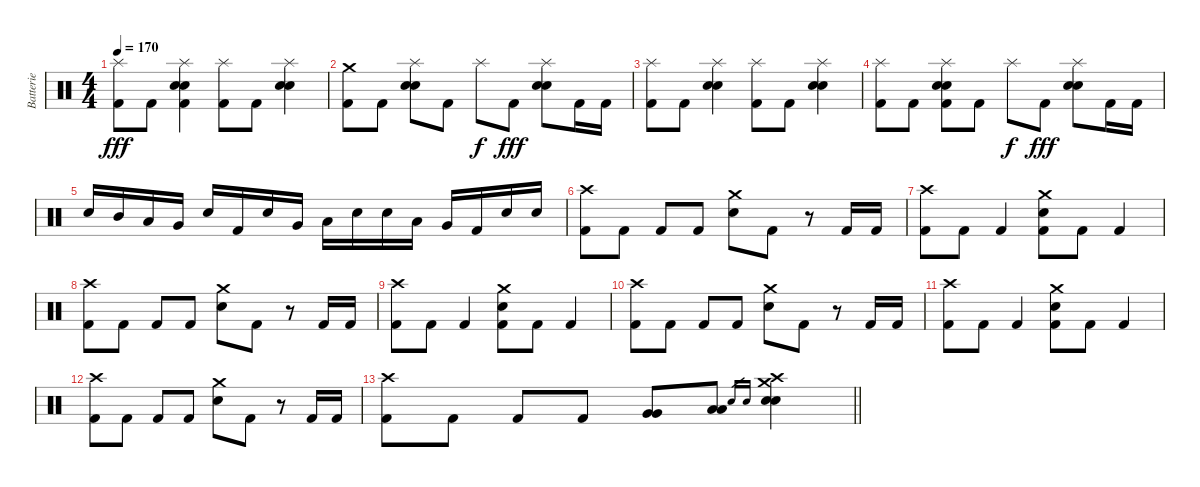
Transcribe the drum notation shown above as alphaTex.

\track ("Batterie" "Batterie") {instrument percussion}
\staff {score}
\articulation defaults
\ts (4 4)
\tempo 170
\clef neutral
\ks c
("Splash (hit)" "Kick (hit) 2").8{dy fff} "Kick (hit) 2".8 ("Splash (hit)" "Electric Snare (hit)" "Electric Snare (hit)" "Kick (hit) 2").4 ("Splash (hit)" "Kick (hit) 2").8 "Kick (hit) 2".8 ("Splash (hit)" "Electric Snare (hit)" "Electric Snare (hit)").4 |
("Crash medium (hit)" "Kick (hit) 2").8 "Kick (hit) 2".8 ("Splash (hit)" "Electric Snare (hit)" "Electric Snare (hit)").8 "Kick (hit) 2".8 "Splash (hit)".8{dy f} "Kick (hit) 2".8{dy fff} ("Splash (hit)" "Electric Snare (hit)" "Electric Snare (hit)").8 "Kick (hit) 2".16 "Kick (hit) 2".16 |
("Splash (hit)" "Kick (hit) 2").8 "Kick (hit) 2".8 ("Splash (hit)" "Electric Snare (hit)" "Electric Snare (hit)").4 ("Splash (hit)" "Kick (hit) 2").8 "Kick (hit) 2".8 ("Splash (hit)" "Electric Snare (hit)" "Electric Snare (hit)").4 |
("Splash (hit)" "Kick (hit) 2").8 "Kick (hit) 2".8 ("Splash (hit)" "Electric Snare (hit)" "Electric Snare (hit)" "Kick (hit) 2").8 "Kick (hit) 2".8 "Splash (hit)".8{dy f} "Kick (hit) 2".8{dy fff} ("Splash (hit)" "Electric Snare (hit)" "Electric Snare (hit)").8 "Kick (hit) 2".16 "Kick (hit) 2".16 |
"Electric Snare (hit)".16 "Mid Tom (hit)".16 "Low Tom (hit)".16 "Very Low Tom (hit)".16 "Electric Snare (hit)".16 "Kick (hit) 2".16 "Electric Snare (hit)".16 "Very Low Tom (hit)".16 "Low Floor Tom (hit)".16 "Electric Snare (hit)".16 "Electric Snare (hit)".16 "Low Tom (hit)".16 "Very Low Tom (hit)".16 "Kick (hit) 2".16 "Electric Snare (hit)".16 "Electric Snare (hit)".16 |
("Crash high (hit)" "Kick (hit) 2").8 "Kick (hit) 2".8 "Kick (hit) 2".8 "Kick (hit) 2".8 ("Crash medium (hit)" "Electric Snare (hit)").8 "Kick (hit) 2".8 r.8 "Kick (hit) 2".16 "Kick (hit) 2".16 |
("Crash high (hit)" "Kick (hit) 2").8 "Kick (hit) 2".8 "Kick (hit) 2".4 ("Crash medium (hit)" "Electric Snare (hit)" "Kick (hit) 2").8 "Kick (hit) 2".8 "Kick (hit) 2".4 |
("Crash high (hit)" "Kick (hit) 2").8 "Kick (hit) 2".8 "Kick (hit) 2".8 "Kick (hit) 2".8 ("Crash medium (hit)" "Electric Snare (hit)").8 "Kick (hit) 2".8 r.8 "Kick (hit) 2".16 "Kick (hit) 2".16 |
("Crash high (hit)" "Kick (hit) 2").8 "Kick (hit) 2".8 "Kick (hit) 2".4 ("Crash medium (hit)" "Electric Snare (hit)" "Kick (hit) 2").8 "Kick (hit) 2".8 "Kick (hit) 2".4 |
("Crash high (hit)" "Kick (hit) 2").8 "Kick (hit) 2".8 "Kick (hit) 2".8 "Kick (hit) 2".8 ("Crash medium (hit)" "Electric Snare (hit)").8 "Kick (hit) 2".8 r.8 "Kick (hit) 2".16 "Kick (hit) 2".16 |
("Crash high (hit)" "Kick (hit) 2").8 "Kick (hit) 2".8 "Kick (hit) 2".4 ("Crash medium (hit)" "Electric Snare (hit)" "Kick (hit) 2").8 "Kick (hit) 2".8 "Kick (hit) 2".4 |
("Crash high (hit)" "Kick (hit) 2").8 "Kick (hit) 2".8 "Kick (hit) 2".8 "Kick (hit) 2".8 ("Crash medium (hit)" "Electric Snare (hit)").8 "Kick (hit) 2".8 r.8 "Kick (hit) 2".16 "Kick (hit) 2".16 |
\barLineRight lightlight
("Crash high (hit)" "Kick (hit) 2").8 "Kick (hit) 2".8 "Kick (hit) 2".8 "Kick (hit) 2".8 ("Very Low Tom (hit)" "Very Low Tom (hit)").8 ("Low Floor Tom (hit)" "Low Floor Tom (hit)").8 "Electric Snare (hit)".16{gr} "Electric Snare (hit)".16{gr} ("Crash medium (hit)" "Crash high (hit)" "Electric Snare (hit)" "Electric Snare (hit)").4
